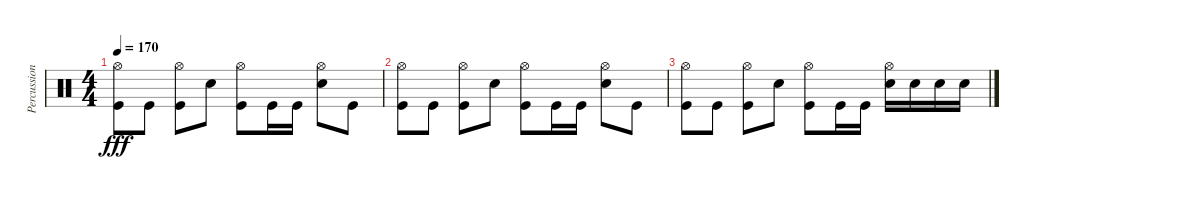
\track ("Percussion" "Percussion") {instrument percussion}
\staff {score}
\articulation defaults
\ts (4 4)
\tempo 170
\clef neutral
\ks c
("Hi-Hat (open)" "Kick (hit)").8{dy fff} "Kick (hit)".8 ("Hi-Hat (open)" "Kick (hit)").8 "Snare (hit) 2".8 ("Hi-Hat (open)" "Kick (hit)").8 "Kick (hit)".16 "Kick (hit)".16 ("Hi-Hat (open)" "Snare (hit) 2").8 "Kick (hit)".8 |
("Hi-Hat (open)" "Kick (hit)").8 "Kick (hit)".8 ("Hi-Hat (open)" "Kick (hit)").8 "Snare (hit) 2".8 ("Hi-Hat (open)" "Kick (hit)").8 "Kick (hit)".16 "Kick (hit)".16 ("Hi-Hat (open)" "Snare (hit) 2").8 "Kick (hit)".8 |
("Hi-Hat (open)" "Kick (hit)").8 "Kick (hit)".8 ("Hi-Hat (open)" "Kick (hit)").8 "Snare (hit) 2".8 ("Hi-Hat (open)" "Kick (hit)").8 "Kick (hit)".16 "Kick (hit)".16 ("Hi-Hat (open)" "Snare (hit) 2").16 "Snare (hit) 2".16 "Snare (hit) 2".16 "Snare (hit) 2".16
